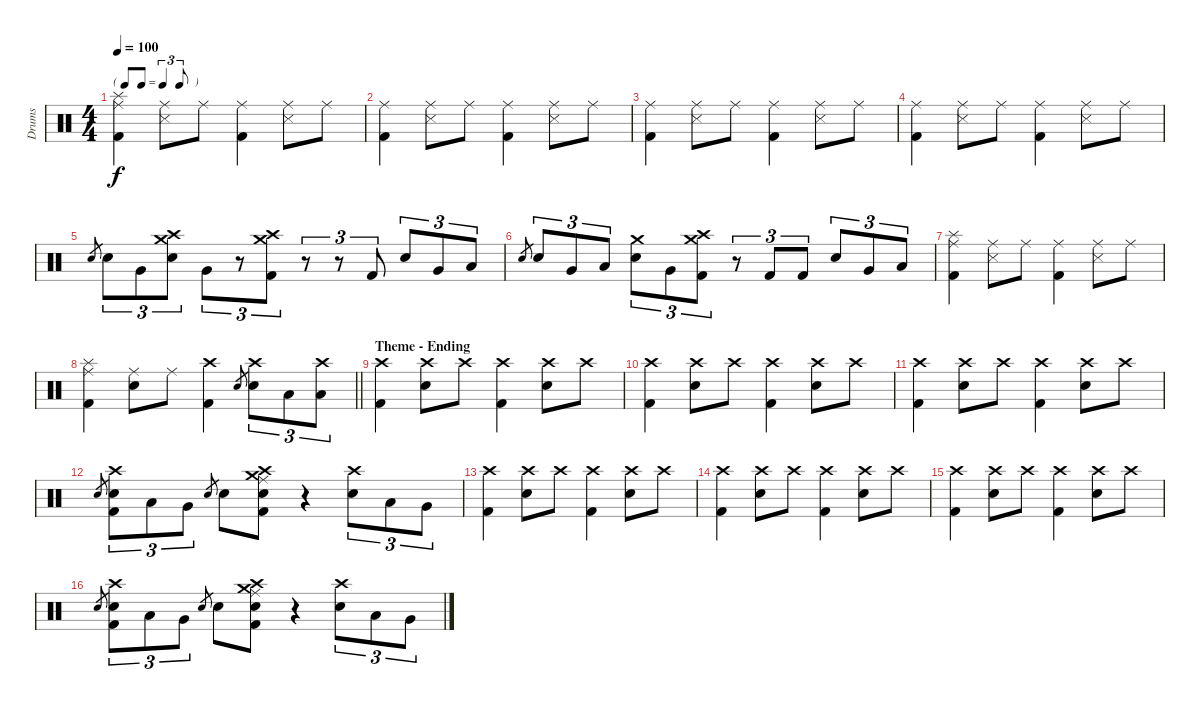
\track ("Drums" "Drums") {instrument percussion}
\staff {score}
\articulation defaults
\ts (4 4)
\tf triplet8th
\tempo 100
\clef neutral
\ks c
("Ride (middle)" "Splash (hit)" "Kick (hit) 2").4{dy f} ("Ride (middle)" "Snare (side stick) 3").8 "Ride (middle)".8 ("Ride (middle)" "Kick (hit) 2").4 ("Ride (middle)" "Snare (side stick) 3").8 "Ride (middle)".8 |
("Ride (middle)" "Kick (hit) 2").4 ("Ride (middle)" "Snare (side stick) 3").8 "Ride (middle)".8 ("Ride (middle)" "Kick (hit) 2").4 ("Ride (middle)" "Snare (side stick) 3").8 "Ride (middle)".8 |
("Ride (middle)" "Kick (hit) 2").4 ("Ride (middle)" "Snare (side stick) 3").8 "Ride (middle)".8 ("Ride (middle)" "Kick (hit) 2").4 ("Ride (middle)" "Snare (side stick) 3").8 "Ride (middle)".8 |
("Ride (middle)" "Kick (hit) 2").4 ("Ride (middle)" "Snare (side stick) 3").8 "Ride (middle)".8 ("Ride (middle)" "Kick (hit) 2").4 ("Ride (middle)" "Snare (side stick) 3").8 "Ride (middle)".8 |
"Electric Snare (hit)".8{gr} "Electric Snare (hit)".8{tu (3 2)} "Very Low Tom (hit)".8{tu (3 2)} ("Crash medium (hit)" "Crash high (hit)" "Electric Snare (hit)").8{tu (3 2)} "Very Low Tom (hit)".8{tu (3 2)} r.8{tu (3 2)} ("Crash medium (hit)" "Crash high (hit)" "Kick (hit) 2").8{tu (3 2)} r.8{tu (3 2)} r.8{tu (3 2)} "Kick (hit) 2".8{tu (3 2)} "Electric Snare (hit)".8{tu (3 2)} "Very Low Tom (hit)".8{tu (3 2)} "Low Floor Tom (hit)".8{tu (3 2)} |
"Electric Snare (hit)".8{gr} "Electric Snare (hit)".8{tu (3 2)} "Very Low Tom (hit)".8{tu (3 2)} "Low Floor Tom (hit)".8{tu (3 2)} ("Crash medium (hit)" "Electric Snare (hit)").8{tu (3 2)} "Very Low Tom (hit)".8{tu (3 2)} ("Crash medium (hit)" "Crash high (hit)" "Kick (hit) 2").8{tu (3 2)} r.8{tu (3 2)} "Kick (hit) 2".8{tu (3 2)} "Kick (hit) 2".8{tu (3 2)} "Electric Snare (hit)".8{tu (3 2)} "Very Low Tom (hit)".8{tu (3 2)} "Low Floor Tom (hit)".8{tu (3 2)} |
("Ride (middle)" "Splash (hit)" "Kick (hit) 2").4 ("Ride (middle)" "Snare (side stick) 3").8 "Ride (middle)".8 ("Ride (middle)" "Kick (hit) 2").4 ("Ride (middle)" "Snare (side stick) 3").8 "Ride (middle)".8 |
\barLineRight lightlight
("Ride (middle)" "Splash (hit)" "Kick (hit) 2").4 ("Ride (middle)" "Electric Snare (hit)").8 "Ride (middle)".8 ("Crash high (hit)" "Kick (hit) 2").4 "Electric Snare (hit)".8{gr} ("Crash high (hit)" "Electric Snare (hit)").8{tu (3 2)} "Low Tom (hit)".8{tu (3 2)} ("Crash high (hit)" "Low Floor Tom (hit)").8{tu (3 2)} |
\section ("" "Theme - Ending")
("Crash high (hit)" "Kick (hit) 2").4 ("Crash high (hit)" "Electric Snare (hit)").8 "Crash high (hit)".8 ("Crash high (hit)" "Kick (hit) 2").4 ("Crash high (hit)" "Electric Snare (hit)").8 "Crash high (hit)".8 |
("Crash high (hit)" "Kick (hit) 2").4 ("Crash high (hit)" "Electric Snare (hit)").8 "Crash high (hit)".8 ("Crash high (hit)" "Kick (hit) 2").4 ("Crash high (hit)" "Electric Snare (hit)").8 "Crash high (hit)".8 |
("Crash high (hit)" "Kick (hit) 2").4 ("Crash high (hit)" "Electric Snare (hit)").8 "Crash high (hit)".8 ("Crash high (hit)" "Kick (hit) 2").4 ("Crash high (hit)" "Electric Snare (hit)").8 "Crash high (hit)".8 |
"Electric Snare (hit)".8{gr} ("Crash high (hit)" "Electric Snare (hit)" "Kick (hit) 2").8{tu (3 2)} "Low Tom (hit)".8{tu (3 2)} "Very Low Tom (hit)".8{tu (3 2)} "Electric Snare (hit)".8{gr} "Electric Snare (hit)".8 ("Ride (middle)" "Crash high (hit)" "Crash medium (hit)" "Electric Snare (hit)" "Kick (hit) 2").8 r.4 ("Crash high (hit)" "Electric Snare (hit)").8{tu (3 2)} "Low Tom (hit)".8{tu (3 2)} "Very Low Tom (hit)".8{tu (3 2)} |
("Crash high (hit)" "Kick (hit) 2").4 ("Crash high (hit)" "Electric Snare (hit)").8 "Crash high (hit)".8 ("Crash high (hit)" "Kick (hit) 2").4 ("Crash high (hit)" "Electric Snare (hit)").8 "Crash high (hit)".8 |
("Crash high (hit)" "Kick (hit) 2").4 ("Crash high (hit)" "Electric Snare (hit)").8 "Crash high (hit)".8 ("Crash high (hit)" "Kick (hit) 2").4 ("Crash high (hit)" "Electric Snare (hit)").8 "Crash high (hit)".8 |
("Crash high (hit)" "Kick (hit) 2").4 ("Crash high (hit)" "Electric Snare (hit)").8 "Crash high (hit)".8 ("Crash high (hit)" "Kick (hit) 2").4 ("Crash high (hit)" "Electric Snare (hit)").8 "Crash high (hit)".8 |
"Electric Snare (hit)".8{gr} ("Crash high (hit)" "Electric Snare (hit)" "Kick (hit) 2").8{tu (3 2)} "Low Tom (hit)".8{tu (3 2)} "Very Low Tom (hit)".8{tu (3 2)} "Electric Snare (hit)".8{gr} "Electric Snare (hit)".8 ("Ride (middle)" "Crash high (hit)" "Crash medium (hit)" "Electric Snare (hit)" "Kick (hit) 2").8 r.4 ("Crash high (hit)" "Electric Snare (hit)").8{tu (3 2)} "Low Tom (hit)".8{tu (3 2)} "Very Low Tom (hit)".8{tu (3 2)}
